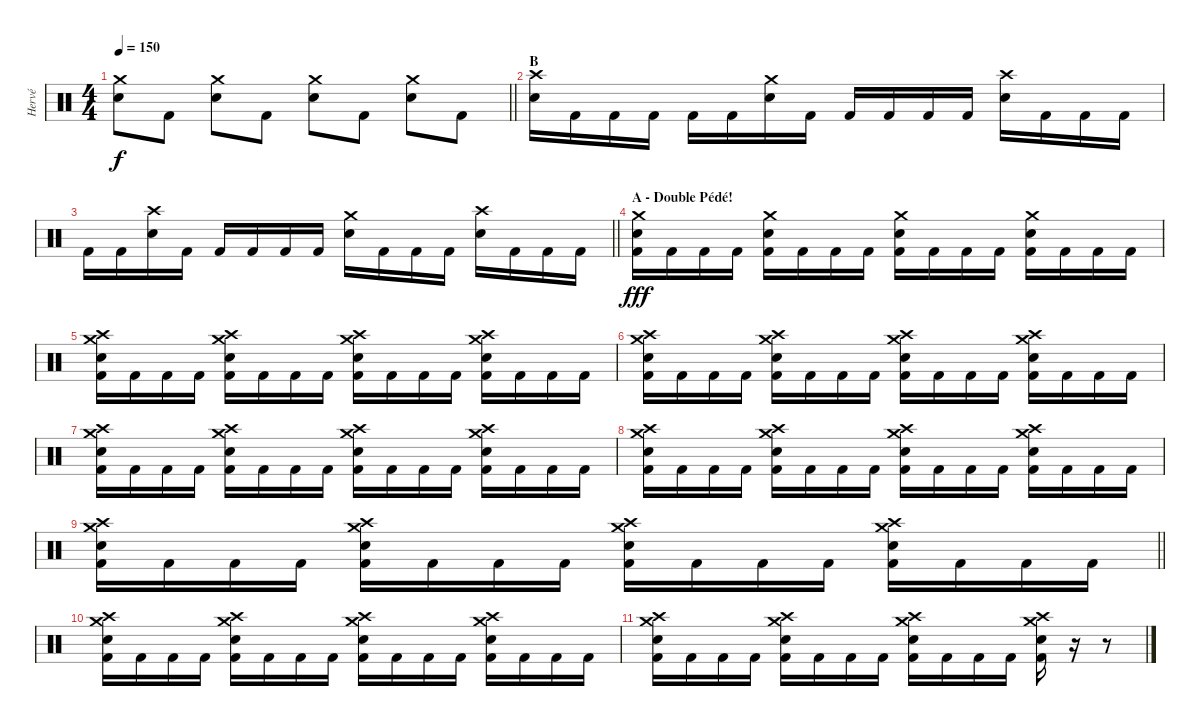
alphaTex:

\track ("Hervé" "Hervé") {instrument percussion}
\staff {score}
\articulation defaults
\ts (4 4)
\tempo 150
\clef neutral
\barLineRight lightlight
\ks c
("Crash medium (hit)" "Snare (hit) 2").8{dy f} "Kick (hit) 2".8 ("Crash medium (hit)" "Snare (hit) 2").8 "Kick (hit) 2".8 ("Crash medium (hit)" "Snare (hit) 2").8 "Kick (hit) 2".8 ("Crash medium (hit)" "Snare (hit) 2").8 "Kick (hit) 2".8 |
\section ("" "B")
("Crash high (hit)" "Snare (hit) 2").16 "Kick (hit) 2".16 "Kick (hit) 2".16 "Kick (hit) 2".16 "Kick (hit) 2".16 "Kick (hit) 2".16 ("Crash medium (hit)" "Snare (hit) 2").16 "Kick (hit) 2".16 "Kick (hit) 2".16 "Kick (hit) 2".16 "Kick (hit) 2".16 "Kick (hit) 2".16 ("Crash high (hit)" "Snare (hit) 2").16 "Kick (hit) 2".16 "Kick (hit) 2".16 "Kick (hit) 2".16 |
\barLineRight lightlight "Kick (hit) 2".16 "Kick (hit) 2".16
("Crash high (hit)" "Snare (hit) 2").16 "Kick (hit) 2".16 "Kick (hit) 2".16 "Kick (hit) 2".16 "Kick (hit) 2".16 "Kick (hit) 2".16 ("Crash medium (hit)" "Snare (hit) 2").16 "Kick (hit) 2".16 "Kick (hit) 2".16 "Kick (hit) 2".16 ("Crash high (hit)" "Snare (hit) 2").16 "Kick (hit) 2".16 "Kick (hit) 2".16 "Kick (hit) 2".16 |
\section ("" "A - Double Pédé!")
("Crash medium (hit)" "Snare (hit) 2" "Kick (hit) 2").16{dy fff} "Kick (hit) 2".16 "Kick (hit) 2".16 "Kick (hit) 2".16 ("Crash medium (hit)" "Snare (hit) 2" "Kick (hit) 2").16 "Kick (hit) 2".16 "Kick (hit) 2".16 "Kick (hit) 2".16 ("Crash medium (hit)" "Snare (hit) 2" "Kick (hit) 2").16 "Kick (hit) 2".16 "Kick (hit) 2".16 "Kick (hit) 2".16 ("Crash medium (hit)" "Snare (hit) 2" "Kick (hit) 2").16 "Kick (hit) 2".16 "Kick (hit) 2".16 "Kick (hit) 2".16 |
("Crash medium (hit)" "Crash high (hit)" "Snare (hit) 2" "Kick (hit) 2").16 "Kick (hit) 2".16 "Kick (hit) 2".16 "Kick (hit) 2".16 ("Crash medium (hit)" "Crash high (hit)" "Snare (hit) 2" "Kick (hit) 2").16 "Kick (hit) 2".16 "Kick (hit) 2".16 "Kick (hit) 2".16 ("Crash medium (hit)" "Crash high (hit)" "Snare (hit) 2" "Kick (hit) 2").16 "Kick (hit) 2".16 "Kick (hit) 2".16 "Kick (hit) 2".16 ("Crash medium (hit)" "Crash high (hit)" "Snare (hit) 2" "Kick (hit) 2").16 "Kick (hit) 2".16 "Kick (hit) 2".16 "Kick (hit) 2".16 |
("Crash medium (hit)" "Crash high (hit)" "Snare (hit) 2" "Kick (hit) 2").16 "Kick (hit) 2".16 "Kick (hit) 2".16 "Kick (hit) 2".16 ("Crash medium (hit)" "Crash high (hit)" "Snare (hit) 2" "Kick (hit) 2").16 "Kick (hit) 2".16 "Kick (hit) 2".16 "Kick (hit) 2".16 ("Crash medium (hit)" "Crash high (hit)" "Snare (hit) 2" "Kick (hit) 2").16 "Kick (hit) 2".16 "Kick (hit) 2".16 "Kick (hit) 2".16 ("Crash medium (hit)" "Crash high (hit)" "Snare (hit) 2" "Kick (hit) 2").16 "Kick (hit) 2".16 "Kick (hit) 2".16 "Kick (hit) 2".16 |
("Crash medium (hit)" "Crash high (hit)" "Snare (hit) 2" "Kick (hit) 2").16 "Kick (hit) 2".16 "Kick (hit) 2".16 "Kick (hit) 2".16 ("Crash medium (hit)" "Crash high (hit)" "Snare (hit) 2" "Kick (hit) 2").16 "Kick (hit) 2".16 "Kick (hit) 2".16 "Kick (hit) 2".16 ("Crash medium (hit)" "Crash high (hit)" "Snare (hit) 2" "Kick (hit) 2").16 "Kick (hit) 2".16 "Kick (hit) 2".16 "Kick (hit) 2".16 ("Crash medium (hit)" "Crash high (hit)" "Snare (hit) 2" "Kick (hit) 2").16 "Kick (hit) 2".16 "Kick (hit) 2".16 "Kick (hit) 2".16 |
("Crash medium (hit)" "Crash high (hit)" "Snare (hit) 2" "Kick (hit) 2").16 "Kick (hit) 2".16 "Kick (hit) 2".16 "Kick (hit) 2".16 ("Crash medium (hit)" "Crash high (hit)" "Snare (hit) 2" "Kick (hit) 2").16 "Kick (hit) 2".16 "Kick (hit) 2".16 "Kick (hit) 2".16 ("Crash medium (hit)" "Crash high (hit)" "Snare (hit) 2" "Kick (hit) 2").16 "Kick (hit) 2".16 "Kick (hit) 2".16 "Kick (hit) 2".16 ("Crash medium (hit)" "Crash high (hit)" "Snare (hit) 2" "Kick (hit) 2").16 "Kick (hit) 2".16 "Kick (hit) 2".16 "Kick (hit) 2".16 |
\barLineRight lightlight
("Crash medium (hit)" "Crash high (hit)" "Snare (hit) 2" "Kick (hit) 2").16 "Kick (hit) 2".16 "Kick (hit) 2".16 "Kick (hit) 2".16 ("Crash medium (hit)" "Crash high (hit)" "Snare (hit) 2" "Kick (hit) 2").16 "Kick (hit) 2".16 "Kick (hit) 2".16 "Kick (hit) 2".16 ("Crash medium (hit)" "Crash high (hit)" "Snare (hit) 2" "Kick (hit) 2").16 "Kick (hit) 2".16 "Kick (hit) 2".16 "Kick (hit) 2".16 ("Crash medium (hit)" "Crash high (hit)" "Snare (hit) 2" "Kick (hit) 2").16 "Kick (hit) 2".16 "Kick (hit) 2".16 "Kick (hit) 2".16 |
("Crash medium (hit)" "Crash high (hit)" "Snare (hit) 2" "Kick (hit) 2").16 "Kick (hit) 2".16 "Kick (hit) 2".16 "Kick (hit) 2".16 ("Crash medium (hit)" "Crash high (hit)" "Snare (hit) 2" "Kick (hit) 2").16 "Kick (hit) 2".16 "Kick (hit) 2".16 "Kick (hit) 2".16 ("Crash medium (hit)" "Crash high (hit)" "Snare (hit) 2" "Kick (hit) 2").16 "Kick (hit) 2".16 "Kick (hit) 2".16 "Kick (hit) 2".16 ("Crash medium (hit)" "Crash high (hit)" "Snare (hit) 2" "Kick (hit) 2").16 "Kick (hit) 2".16 "Kick (hit) 2".16 "Kick (hit) 2".16 |
("Crash medium (hit)" "Crash high (hit)" "Snare (hit) 2" "Kick (hit) 2").16 "Kick (hit) 2".16 "Kick (hit) 2".16 "Kick (hit) 2".16 ("Crash medium (hit)" "Crash high (hit)" "Snare (hit) 2" "Kick (hit) 2").16 "Kick (hit) 2".16 "Kick (hit) 2".16 "Kick (hit) 2".16 ("Crash medium (hit)" "Crash high (hit)" "Snare (hit) 2" "Kick (hit) 2").16 "Kick (hit) 2".16 "Kick (hit) 2".16 "Kick (hit) 2".16 ("Crash medium (hit)" "Crash high (hit)" "Snare (hit) 2" "Kick (hit) 2").16 r.16 r.8
